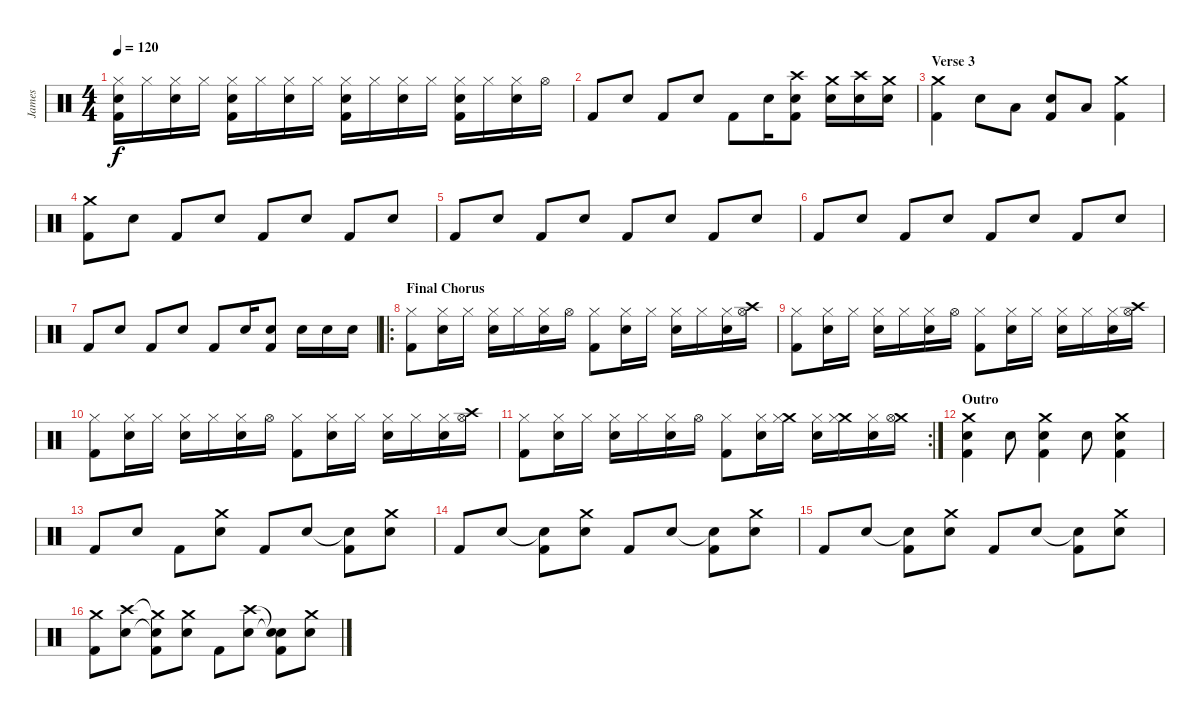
\track ("James" "James") {instrument percussion}
\staff {score}
\articulation defaults
\ts (4 4)
\tempo 120
\clef neutral
\ks c
("Hi-Hat (closed)" "Snare (hit) 2" "Kick (hit) 2").16{dy f} "Hi-Hat (closed)".16 ("Hi-Hat (closed)" "Snare (hit) 2").16 "Hi-Hat (closed)".16 ("Hi-Hat (closed)" "Snare (hit) 2" "Kick (hit) 2").16 "Hi-Hat (closed)".16 ("Hi-Hat (closed)" "Snare (hit) 2").16 "Hi-Hat (closed)".16 ("Hi-Hat (closed)" "Snare (hit) 2" "Kick (hit) 2").16 "Hi-Hat (closed)".16 ("Hi-Hat (closed)" "Snare (hit) 2").16 "Hi-Hat (closed)".16 ("Hi-Hat (closed)" "Snare (hit) 2" "Kick (hit) 2").16 "Hi-Hat (closed)".16 ("Hi-Hat (closed)" "Snare (hit) 2").16 "Hi-Hat (open)".16 |
"Kick (hit) 2".8 "Snare (hit) 2".8 "Kick (hit) 2".8 "Snare (hit) 2".8 "Kick (hit) 2".8 "Snare (hit) 2".16 ("Crash high (hit)" "Snare (hit) 2" "Kick (hit) 2").8 ("Crash medium (hit)" "Snare (hit) 2").16 ("Crash high (hit)" "Snare (hit) 2").16 ("Crash medium (hit)" "Snare (hit) 2").16 |
\section ("" "Verse 3")
("Crash medium (hit)" "Kick (hit) 2").4 "Snare (hit) 2".8 "Low Floor Tom (hit)".8 ("Snare (hit) 2" "Kick (hit) 2").8 "Low Floor Tom (hit)".8 ("Crash medium (hit)" "Kick (hit) 2").4 |
("Crash medium (hit)" "Kick (hit) 2").8 "Snare (hit) 2".8 "Kick (hit) 2".8 "Snare (hit) 2".8 "Kick (hit) 2".8 "Snare (hit) 2".8 "Kick (hit) 2".8 "Snare (hit) 2".8 |
"Kick (hit) 2".8 "Snare (hit) 2".8 "Kick (hit) 2".8 "Snare (hit) 2".8 "Kick (hit) 2".8 "Snare (hit) 2".8 "Kick (hit) 2".8 "Snare (hit) 2".8 |
"Kick (hit) 2".8 "Snare (hit) 2".8 "Kick (hit) 2".8 "Snare (hit) 2".8 "Kick (hit) 2".8 "Snare (hit) 2".8 "Kick (hit) 2".8 "Snare (hit) 2".8 |
"Kick (hit) 2".8 "Snare (hit) 2".8 "Kick (hit) 2".8 "Snare (hit) 2".8 "Kick (hit) 2".8 "Snare (hit) 2".16 ("Snare (hit) 2" "Kick (hit) 2").8 "Snare (hit) 2".16 "Snare (hit) 2".16 "Snare (hit) 2".16 |
\ro
\section ("" "Final Chorus")
("Hi-Hat (closed)" "Kick (hit) 2").8 ("Hi-Hat (closed)" "Snare (hit) 2").16 "Hi-Hat (closed)".16 ("Hi-Hat (closed)" "Snare (hit) 2").16 "Hi-Hat (closed)".16 ("Hi-Hat (closed)" "Snare (hit) 2").16 "Hi-Hat (open)".16 ("Hi-Hat (closed)" "Kick (hit) 2").8 ("Hi-Hat (closed)" "Snare (hit) 2").16 "Hi-Hat (closed)".16 ("Hi-Hat (closed)" "Snare (hit) 2").16 "Hi-Hat (closed)".16 ("Hi-Hat (closed)" "Snare (hit) 2").16 ("Crash high (hit)" "Hi-Hat (open)").16 |
("Hi-Hat (closed)" "Kick (hit) 2").8 ("Hi-Hat (closed)" "Snare (hit) 2").16 "Hi-Hat (closed)".16 ("Hi-Hat (closed)" "Snare (hit) 2").16 "Hi-Hat (closed)".16 ("Hi-Hat (closed)" "Snare (hit) 2").16 "Hi-Hat (open)".16 ("Hi-Hat (closed)" "Kick (hit) 2").8 ("Hi-Hat (closed)" "Snare (hit) 2").16 "Hi-Hat (closed)".16 ("Hi-Hat (closed)" "Snare (hit) 2").16 "Hi-Hat (closed)".16 ("Hi-Hat (closed)" "Snare (hit) 2").16 ("Crash high (hit)" "Hi-Hat (open)").16 |
("Hi-Hat (closed)" "Kick (hit) 2").8 ("Hi-Hat (closed)" "Snare (hit) 2").16 "Hi-Hat (closed)".16 ("Hi-Hat (closed)" "Snare (hit) 2").16 "Hi-Hat (closed)".16 ("Hi-Hat (closed)" "Snare (hit) 2").16 "Hi-Hat (open)".16 ("Hi-Hat (closed)" "Kick (hit) 2").8 ("Hi-Hat (closed)" "Snare (hit) 2").16 "Hi-Hat (closed)".16 ("Hi-Hat (closed)" "Snare (hit) 2").16 "Hi-Hat (closed)".16 ("Hi-Hat (closed)" "Snare (hit) 2").16 ("Crash high (hit)" "Hi-Hat (open)").16 |
\rc 2
("Hi-Hat (closed)" "Kick (hit) 2").8 ("Hi-Hat (closed)" "Snare (hit) 2").16 "Hi-Hat (closed)".16 ("Hi-Hat (closed)" "Snare (hit) 2").16 "Hi-Hat (closed)".16 ("Hi-Hat (closed)" "Snare (hit) 2").16 "Hi-Hat (open)".16 ("Hi-Hat (closed)" "Kick (hit) 2").8 ("Hi-Hat (closed)" "Snare (hit) 2").16 ("Crash medium (hit)" "Hi-Hat (closed)").16 ("Hi-Hat (closed)" "Snare (hit) 2").16 ("Crash medium (hit)" "Hi-Hat (closed)").16 ("Hi-Hat (closed)" "Snare (hit) 2").16 ("Crash medium (hit)" "Hi-Hat (open)").16 |
\section ("" "Outro")
("Crash medium (hit)" "Snare (hit) 2" "Kick (hit) 2").4 "Snare (hit) 2".8 ("Crash medium (hit)" "Snare (hit) 2" "Kick (hit) 2").4 "Snare (hit) 2".8 ("Crash medium (hit)" "Snare (hit) 2" "Kick (hit) 2").4 |
"Kick (hit) 2".8 "Snare (hit) 2".8 "Kick (hit) 2".8 ("Crash medium (hit)" "Snare (hit) 2").8 "Kick (hit) 2".8 "Snare (hit) 2".8 ("Snare (hit)"{t} "Kick (hit) 2").8 ("Crash medium (hit)" "Snare (hit) 2").8 |
"Kick (hit) 2".8 "Snare (hit) 2".8 ("Snare (hit)"{t} "Kick (hit) 2").8 ("Crash medium (hit)" "Snare (hit) 2").8 "Kick (hit) 2".8 "Snare (hit) 2".8 ("Snare (hit)"{t} "Kick (hit) 2").8 ("Crash medium (hit)" "Snare (hit) 2").8 |
"Kick (hit) 2".8 "Snare (hit) 2".8 ("Snare (hit)"{t} "Kick (hit) 2").8 ("Crash medium (hit)" "Snare (hit) 2").8 "Kick (hit) 2".8 "Snare (hit) 2".8 ("Snare (hit)"{t} "Kick (hit) 2").8 ("Crash medium (hit)" "Snare (hit) 2").8 |
("Crash medium (hit)" "Kick (hit) 2").8 ("Crash high (hit)" "Snare (hit) 2").8 ("Crash medium (hit)"{t} "Snare (hit)"{t} "Kick (hit) 2").8 ("Crash medium (hit)" "Snare (hit) 2").8 "Kick (hit) 2".8 ("Crash high (hit)" "Snare (hit) 2").8 ("Snare (hit)"{t} "Snare (hit)"{t} "Kick (hit) 2").8 ("Crash medium (hit)" "Snare (hit) 2").8
